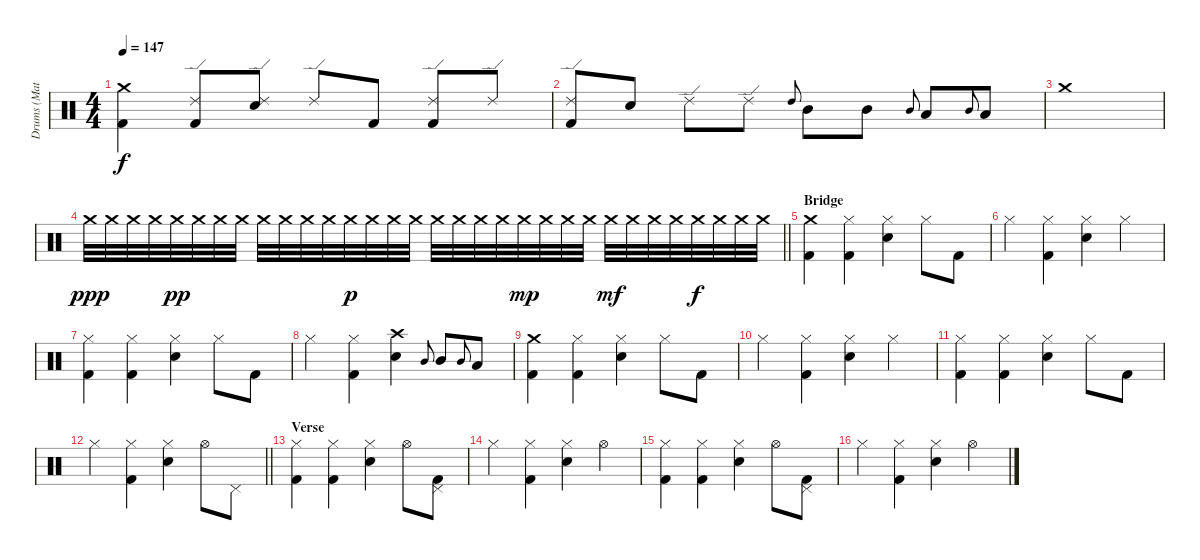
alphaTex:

\track ("Drums (Matt Laug)" "Drums (Mat") {instrument percussion}
\staff {score}
\articulation defaults
\ts (4 4)
\tempo 147
\clef neutral
\ks c
("Crash medium (hit)" "Kick (hit) 2").4{dy f} ("Ride (edge) 2" "Kick (hit) 2").8 ("Ride (edge) 2" "Electric Snare (hit)").8 "Ride (edge) 2".8 "Kick (hit) 2".8 ("Ride (edge) 2" "Kick (hit) 2").8 "Ride (edge) 2".8 |
("Ride (edge) 2" "Kick (hit) 2").8 "Electric Snare (hit)".8 "Ride (edge) 2".8 "Ride (edge) 2".8 "High Tom (hit)".8{gr onbeat} "Mid Tom (hit)".8 "Mid Tom (hit)".8 "Mid Tom (hit)".8{gr onbeat} "Low Tom (hit)".8 "Mid Tom (hit)".8{gr onbeat} "Low Tom (hit)".8 |
"Crash medium (hit)".1 |
\barLineRight lightlight "Crash medium (hit)".32{dy ppp} "Crash medium (hit)".32 "Crash medium (hit)".32 "Crash medium (hit)".32 "Crash medium (hit)".32{dy pp} "Crash medium (hit)".32 "Crash medium (hit)".32 "Crash medium (hit)".32 "Crash medium (hit)".32 "Crash medium (hit)".32 "Crash medium (hit)".32 "Crash medium (hit)".32 "Crash medium (hit)".32{dy p} "Crash medium (hit)".32 "Crash medium (hit)".32 "Crash medium (hit)".32 "Crash medium (hit)".32 "Crash medium (hit)".32 "Crash medium (hit)".32 "Crash medium (hit)".32 "Crash medium (hit)".32{dy mp} "Crash medium (hit)".32 "Crash medium (hit)".32 "Crash medium (hit)".32 "Crash medium (hit)".32{dy mf} "Crash medium (hit)".32 "Crash medium (hit)".32 "Crash medium (hit)".32 "Crash medium (hit)".32{dy f} "Crash medium (hit)".32 "Crash medium (hit)".32 "Crash medium (hit)".32
|
\section ("" "Bridge")
("Crash medium (hit)" "Kick (hit) 2").4 ("Hi-Hat (closed)" "Kick (hit) 2").4 ("Hi-Hat (closed)" "Electric Snare (hit)").4 "Hi-Hat (closed)".8 "Kick (hit) 2".8 |
"Hi-Hat (closed)".4 ("Hi-Hat (closed)" "Kick (hit) 2").4 ("Hi-Hat (closed)" "Electric Snare (hit)").4 "Hi-Hat (closed)".4 |
("Hi-Hat (closed)" "Kick (hit) 2").4 ("Hi-Hat (closed)" "Kick (hit) 2").4 ("Hi-Hat (closed)" "Electric Snare (hit)").4 "Hi-Hat (closed)".8 "Kick (hit) 2".8 |
"Hi-Hat (closed)".4 ("Hi-Hat (closed)" "Kick (hit) 2").4 ("Crash high (hit)" "Electric Snare (hit)").4 "Mid Tom (hit)".8{gr onbeat} "Mid Tom (hit)".8 "Mid Tom (hit)".8{gr onbeat} "Low Tom (hit)".8 |
("Crash medium (hit)" "Kick (hit) 2").4 ("Hi-Hat (closed)" "Kick (hit) 2").4 ("Hi-Hat (closed)" "Electric Snare (hit)").4 "Hi-Hat (closed)".8 "Kick (hit) 2".8 |
"Hi-Hat (closed)".4 ("Hi-Hat (closed)" "Kick (hit) 2").4 ("Hi-Hat (closed)" "Electric Snare (hit)").4 "Hi-Hat (closed)".4 |
("Hi-Hat (closed)" "Kick (hit) 2").4 ("Hi-Hat (closed)" "Kick (hit) 2").4 ("Hi-Hat (closed)" "Electric Snare (hit)").4 "Hi-Hat (closed)".8 "Kick (hit) 2".8 |
\barLineRight lightlight "Hi-Hat (closed)".4
("Hi-Hat (closed)" "Kick (hit) 2").4 ("Hi-Hat (closed)" "Electric Snare (hit)").4 "Hi-Hat (open)".8 "Pedal Hi-Hat (hit)".8 |
\section ("" "Verse")
("Hi-Hat (closed)" "Kick (hit) 2").4 ("Hi-Hat (closed)" "Kick (hit) 2").4 ("Hi-Hat (closed)" "Electric Snare (hit)").4 "Hi-Hat (open)".8 ("Pedal Hi-Hat (hit)" "Kick (hit) 2").8 |
"Hi-Hat (closed)".4 ("Hi-Hat (closed)" "Kick (hit) 2").4 ("Hi-Hat (closed)" "Electric Snare (hit)").4 "Hi-Hat (open)".4 |
("Hi-Hat (closed)" "Kick (hit) 2").4 ("Hi-Hat (closed)" "Kick (hit) 2").4 ("Hi-Hat (closed)" "Electric Snare (hit)").4 "Hi-Hat (open)".8 ("Pedal Hi-Hat (hit)" "Kick (hit) 2").8 |
"Hi-Hat (closed)".4 ("Hi-Hat (closed)" "Kick (hit) 2").4 ("Hi-Hat (closed)" "Electric Snare (hit)").4 "Hi-Hat (open)".4
